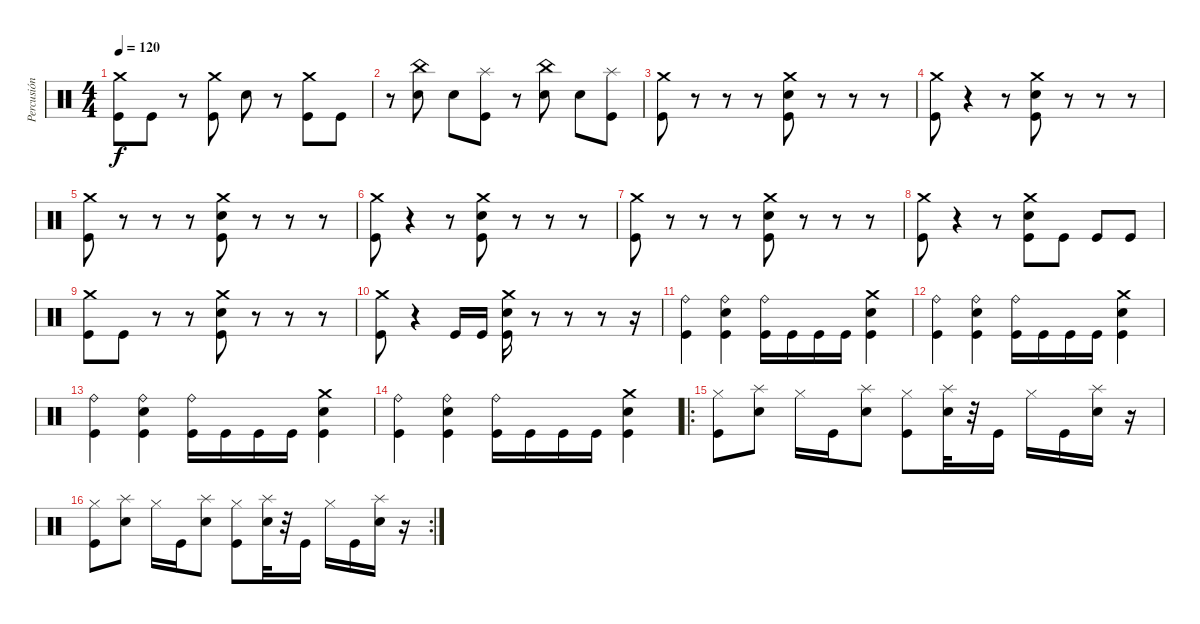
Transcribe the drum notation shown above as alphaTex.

\track ("Percusión" "Percusión") {instrument percussion}
\staff {score}
\articulation defaults
\ts (4 4)
\tempo 120
\clef neutral
\ks c
("Crash medium (hit)" "Kick (hit)").8{dy f} "Kick (hit)".8 r.8 ("Crash medium (hit)" "Kick (hit)").8 "Snare (hit) 2".8 r.8 ("Crash medium (hit)" "Kick (hit)").8 "Kick (hit)".8 |
r.8 ("China (hit)" "Snare (hit) 2").8 "Snare (hit) 2".8 ("Splash (hit)" "Kick (hit)").8 r.8 ("China (hit)" "Snare (hit) 2").8 "Snare (hit) 2".8 ("Splash (hit)" "Kick (hit)").8 |
("Crash medium (hit)" "Kick (hit)").8 r.8 r.8 r.8 ("Crash medium (hit)" "Snare (hit) 2" "Kick (hit)").8 r.8 r.8 r.8 |
("Crash medium (hit)" "Kick (hit)").8 r.4 r.8 ("Crash medium (hit)" "Snare (hit) 2" "Kick (hit)").8 r.8 r.8 r.8 |
("Crash medium (hit)" "Kick (hit)").8 r.8 r.8 r.8 ("Crash medium (hit)" "Snare (hit) 2" "Kick (hit)").8 r.8 r.8 r.8 |
("Crash medium (hit)" "Kick (hit)").8 r.4 r.8 ("Crash medium (hit)" "Snare (hit) 2" "Kick (hit)").8 r.8 r.8 r.8 |
("Crash medium (hit)" "Kick (hit)").8 r.8 r.8 r.8 ("Crash medium (hit)" "Snare (hit) 2" "Kick (hit)").8 r.8 r.8 r.8 |
("Crash medium (hit)" "Kick (hit)").8 r.4 r.8 ("Crash medium (hit)" "Snare (hit) 2" "Kick (hit)").8 "Kick (hit)".8 "Kick (hit)".8 "Kick (hit)".8 |
("Crash medium (hit)" "Kick (hit)").8 "Kick (hit)".8 r.8 r.8 ("Crash medium (hit)" "Snare (hit) 2" "Kick (hit)").8 r.8 r.8 r.8 |
("Crash medium (hit)" "Kick (hit)").8 r.4 "Kick (hit)".16 "Kick (hit)".16 ("Crash medium (hit)" "Snare (hit) 2" "Kick (hit)").16 r.8 r.8 r.8 r.16 |
("Ride (bell)" "Kick (hit)").4 ("Ride (bell)" "Snare (hit) 2" "Kick (hit)").4 ("Ride (bell)" "Kick (hit)").16 "Kick (hit)".16 "Kick (hit)".16 "Kick (hit)".16 ("Crash medium (hit)" "Snare (hit) 2" "Kick (hit)").4 |
("Ride (bell)" "Kick (hit)").4 ("Ride (bell)" "Snare (hit) 2" "Kick (hit)").4 ("Ride (bell)" "Kick (hit)").16 "Kick (hit)".16 "Kick (hit)".16 "Kick (hit)".16 ("Crash medium (hit)" "Snare (hit) 2" "Kick (hit)").4 |
("Ride (bell)" "Kick (hit)").4 ("Ride (bell)" "Snare (hit) 2" "Kick (hit)").4 ("Ride (bell)" "Kick (hit)").16 "Kick (hit)".16 "Kick (hit)".16 "Kick (hit)".16 ("Crash medium (hit)" "Snare (hit) 2" "Kick (hit)").4 |
("Ride (bell)" "Kick (hit)").4 ("Ride (bell)" "Snare (hit) 2" "Kick (hit)").4 ("Ride (bell)" "Kick (hit)").16 "Kick (hit)".16 "Kick (hit)".16 "Kick (hit)".16 ("Crash medium (hit)" "Snare (hit) 2" "Kick (hit)").4 |
\ro
("Hi-Hat (closed)" "Kick (hit)").8 ("Splash (hit)" "Snare (hit) 2").8 "Hi-Hat (closed)".16 "Kick (hit)".16 ("Splash (hit)" "Snare (hit) 2").8 ("Hi-Hat (closed)" "Kick (hit)").8 ("Splash (hit)" "Snare (hit) 2").32 r.32 "Kick (hit)".16 "Hi-Hat (closed)".16 "Kick (hit)".16 ("Splash (hit)" "Snare (hit) 2").16 r.16 |
\rc 2
("Hi-Hat (closed)" "Kick (hit)").8 ("Splash (hit)" "Snare (hit) 2").8 "Hi-Hat (closed)".16 "Kick (hit)".16 ("Splash (hit)" "Snare (hit) 2").8 ("Hi-Hat (closed)" "Kick (hit)").8 ("Splash (hit)" "Snare (hit) 2").32 r.32 "Kick (hit)".16 "Hi-Hat (closed)".16 "Kick (hit)".16 ("Splash (hit)" "Snare (hit) 2").16 r.16
